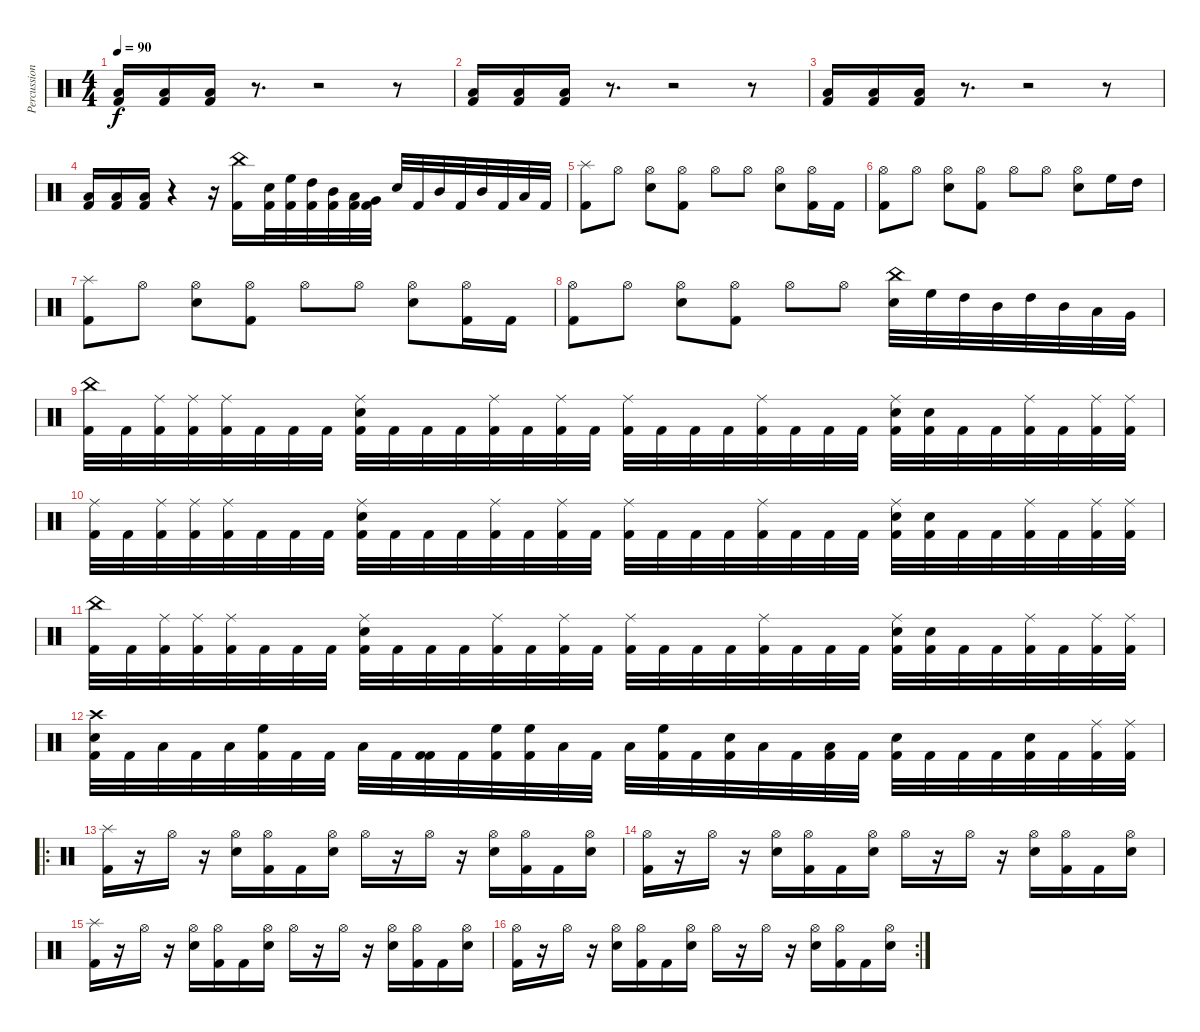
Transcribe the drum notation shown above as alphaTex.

\track ("Percussion" "Percussion") {instrument percussion}
\staff {score}
\articulation defaults
\ts (4 4)
\tempo 90
\clef neutral
\ks c
("Low Floor Tom (hit)" "Kick (hit) 2").16{dy f} ("Low Floor Tom (hit)" "Kick (hit) 2").16 ("Low Floor Tom (hit)" "Kick (hit) 2").16 r.8{d} r.2 r.8 |
("Low Floor Tom (hit)" "Kick (hit) 2").16 ("Low Floor Tom (hit)" "Kick (hit) 2").16 ("Low Floor Tom (hit)" "Kick (hit) 2").16 r.8{d} r.2 r.8 |
("Low Floor Tom (hit)" "Kick (hit) 2").16 ("Low Floor Tom (hit)" "Kick (hit) 2").16 ("Low Floor Tom (hit)" "Kick (hit) 2").16 r.8{d} r.2 r.8 |
("Low Floor Tom (hit)" "Kick (hit) 2").16 ("Low Floor Tom (hit)" "Kick (hit) 2").16 ("Low Floor Tom (hit)" "Kick (hit) 2").16 r.4 r.16 ("China (hit)" "Kick (hit) 2").16 ("Snare (hit) 2" "Kick (hit) 2").32 ("High Floor Tom (hit)" "Kick (hit) 2").32 ("High Tom (hit)" "Kick (hit) 2").32 ("Mid Tom (hit)" "Kick (hit) 2").32 ("Low Tom (hit)" "Kick (hit) 2").32 ("Very Low Tom (hit)" "Kick (hit) 2").32 "Snare (hit) 2".32 "Kick (hit) 2".32 "Mid Tom (hit)".32 "Kick (hit) 2".32 "Mid Tom (hit)".32 "Kick (hit) 2".32 "Low Tom (hit)".32 "Kick (hit) 2".32 |
("Splash (hit)" "Kick (hit) 2").8 "Hi-Hat (open)".8 ("Hi-Hat (open)" "Snare (hit) 2").8 ("Hi-Hat (open)" "Kick (hit) 2").8 "Hi-Hat (open)".8 "Hi-Hat (open)".8 ("Hi-Hat (open)" "Snare (hit) 2").8 ("Hi-Hat (open)" "Kick (hit) 2").16 "Kick (hit) 2".16 |
("Hi-Hat (open)" "Kick (hit) 2").8 "Hi-Hat (open)".8 ("Hi-Hat (open)" "Snare (hit) 2").8 ("Hi-Hat (open)" "Kick (hit) 2").8 "Hi-Hat (open)".8 "Hi-Hat (open)".8 ("Hi-Hat (open)" "Snare (hit) 2").8 "High Floor Tom (hit)".16 "High Tom (hit)".16 |
("Splash (hit)" "Kick (hit) 2").8 "Hi-Hat (open)".8 ("Hi-Hat (open)" "Snare (hit) 2").8 ("Hi-Hat (open)" "Kick (hit) 2").8 "Hi-Hat (open)".8 "Hi-Hat (open)".8 ("Hi-Hat (open)" "Snare (hit) 2").8 ("Hi-Hat (open)" "Kick (hit) 2").16 "Kick (hit) 2".16 |
("Hi-Hat (open)" "Kick (hit) 2").8 "Hi-Hat (open)".8 ("Hi-Hat (open)" "Snare (hit) 2").8 ("Hi-Hat (open)" "Kick (hit) 2").8 "Hi-Hat (open)".8 "Hi-Hat (open)".8 ("China (hit)" "Snare (hit) 2").32 "High Floor Tom (hit)".32 "High Tom (hit)".32 "Mid Tom (hit)".32 "High Tom (hit)".32 "Mid Tom (hit)".32 "Low Tom (hit)".32 "Very Low Tom (hit)".32 |
("China (hit)" "Kick (hit) 2").32 "Kick (hit) 2".32 ("Ride (middle)" "Kick (hit) 2").32 ("Ride (middle)" "Kick (hit) 2").32 ("Ride (middle)" "Kick (hit) 2").32 "Kick (hit) 2".32 "Kick (hit) 2".32 "Kick (hit) 2".32 ("Snare (hit) 2" "Ride (middle)" "Kick (hit) 2").32 "Kick (hit) 2".32 "Kick (hit) 2".32 "Kick (hit) 2".32 ("Ride (middle)" "Kick (hit) 2").32 "Kick (hit) 2".32 ("Ride (middle)" "Kick (hit) 2").32 "Kick (hit) 2".32 ("Ride (middle)" "Kick (hit) 2").32 "Kick (hit) 2".32 "Kick (hit) 2".32 "Kick (hit) 2".32 ("Ride (middle)" "Kick (hit) 2").32 "Kick (hit) 2".32 "Kick (hit) 2".32 "Kick (hit) 2".32 ("Snare (hit) 2" "Ride (middle)" "Kick (hit) 2").32 ("Snare (hit)" "Kick (hit) 2").32 "Kick (hit) 2".32 "Kick (hit) 2".32 ("Ride (middle)" "Kick (hit) 2").32 "Kick (hit) 2".32 ("Ride (middle)" "Kick (hit) 2").32 ("Ride (middle)" "Kick (hit) 2").32 |
("Ride (middle)" "Kick (hit) 2").32 "Kick (hit) 2".32 ("Ride (middle)" "Kick (hit) 2").32 ("Ride (middle)" "Kick (hit) 2").32 ("Ride (middle)" "Kick (hit) 2").32 "Kick (hit) 2".32 "Kick (hit) 2".32 "Kick (hit) 2".32 ("Snare (hit) 2" "Ride (middle)" "Kick (hit) 2").32 "Kick (hit) 2".32 "Kick (hit) 2".32 "Kick (hit) 2".32 ("Ride (middle)" "Kick (hit) 2").32 "Kick (hit) 2".32 ("Ride (middle)" "Kick (hit) 2").32 "Kick (hit) 2".32 ("Ride (middle)" "Kick (hit) 2").32 "Kick (hit) 2".32 "Kick (hit) 2".32 "Kick (hit) 2".32 ("Ride (middle)" "Kick (hit) 2").32 "Kick (hit) 2".32 "Kick (hit) 2".32 "Kick (hit) 2".32 ("Snare (hit) 2" "Ride (middle)" "Kick (hit) 2").32 ("Snare (hit)" "Kick (hit) 2").32 "Kick (hit) 2".32 "Kick (hit) 2".32 ("Ride (middle)" "Kick (hit) 2").32 "Kick (hit) 2".32 ("Ride (middle)" "Kick (hit) 2").32 ("Ride (middle)" "Kick (hit) 2").32 |
("China (hit)" "Kick (hit) 2").32 "Kick (hit) 2".32 ("Ride (middle)" "Kick (hit) 2").32 ("Ride (middle)" "Kick (hit) 2").32 ("Ride (middle)" "Kick (hit) 2").32 "Kick (hit) 2".32 "Kick (hit) 2".32 "Kick (hit) 2".32 ("Snare (hit) 2" "Ride (middle)" "Kick (hit) 2").32 "Kick (hit) 2".32 "Kick (hit) 2".32 "Kick (hit) 2".32 ("Ride (middle)" "Kick (hit) 2").32 "Kick (hit) 2".32 ("Ride (middle)" "Kick (hit) 2").32 "Kick (hit) 2".32 ("Ride (middle)" "Kick (hit) 2").32 "Kick (hit) 2".32 "Kick (hit) 2".32 "Kick (hit) 2".32 ("Ride (middle)" "Kick (hit) 2").32 "Kick (hit) 2".32 "Kick (hit) 2".32 "Kick (hit) 2".32 ("Snare (hit) 2" "Ride (middle)" "Kick (hit) 2").32 ("Snare (hit)" "Kick (hit) 2").32 "Kick (hit) 2".32 "Kick (hit) 2".32 ("Ride (middle)" "Kick (hit) 2").32 "Kick (hit) 2".32 ("Ride (middle)" "Kick (hit) 2").32 ("Ride (middle)" "Kick (hit) 2").32 |
("Crash high (hit)" "Snare (hit) 2" "Kick (hit) 2").32 "Kick (hit) 2".32 "Low Tom (hit)".32 "Kick (hit) 2".32 "Low Tom (hit)".32 ("High Floor Tom (hit)" "Kick (hit) 2").32 "Kick (hit) 2".32 "Kick (hit) 2".32 "Low Tom (hit)".32 "Kick (hit) 2".32 ("Kick (hit) 2" "Kick (hit) 2").32 "Kick (hit) 2".32 ("High Floor Tom (hit)" "Kick (hit) 2").32 ("High Floor Tom (hit)" "Kick (hit) 2").32 "Low Tom (hit)".32 "Kick (hit) 2".32 "Low Tom (hit)".32 ("High Floor Tom (hit)" "Kick (hit) 2").32 "Kick (hit) 2".32 ("Snare (hit)" "Kick (hit) 2").32 "Low Tom (hit)".32 "Kick (hit) 2".32 ("Low Tom (hit)" "Kick (hit) 2").32 "Kick (hit) 2".32 ("Snare (hit) 2" "Kick (hit) 2").32 "Kick (hit) 2".32 "Kick (hit) 2".32 "Kick (hit) 2".32 ("Snare (hit) 2" "Kick (hit) 2").32 "Kick (hit) 2".32 ("Ride (middle)" "Kick (hit) 2").32 ("Ride (middle)" "Kick (hit) 2").32 |
\ro
("Kick (hit) 2" "Splash (hit)").16 r.16 "Hi-Hat (open)".16 r.16 ("Snare (hit) 2" "Hi-Hat (open)").16 ("Kick (hit) 2" "Hi-Hat (open)").16 "Kick (hit) 2".16 ("Snare (hit) 2" "Hi-Hat (open)").16 "Hi-Hat (open)".16 r.16 "Hi-Hat (open)".16 r.16 ("Snare (hit) 2" "Hi-Hat (open)").16 ("Kick (hit) 2" "Hi-Hat (open)").16 "Kick (hit) 2".16 ("Snare (hit) 2" "Hi-Hat (open)").16 |
("Kick (hit) 2" "Hi-Hat (open)").16 r.16 "Hi-Hat (open)".16 r.16 ("Snare (hit) 2" "Hi-Hat (open)").16 ("Kick (hit) 2" "Hi-Hat (open)").16 "Kick (hit) 2".16 ("Snare (hit) 2" "Hi-Hat (open)").16 "Hi-Hat (open)".16 r.16 "Hi-Hat (open)".16 r.16 ("Snare (hit) 2" "Hi-Hat (open)").16 ("Kick (hit) 2" "Hi-Hat (open)").16 "Kick (hit) 2".16 ("Snare (hit) 2" "Hi-Hat (open)").16 |
("Kick (hit) 2" "Splash (hit)").16 r.16 "Hi-Hat (open)".16 r.16 ("Snare (hit) 2" "Hi-Hat (open)").16 ("Kick (hit) 2" "Hi-Hat (open)").16 "Kick (hit) 2".16 ("Snare (hit) 2" "Hi-Hat (open)").16 "Hi-Hat (open)".16 r.16 "Hi-Hat (open)".16 r.16 ("Snare (hit) 2" "Hi-Hat (open)").16 ("Kick (hit) 2" "Hi-Hat (open)").16 "Kick (hit) 2".16 ("Snare (hit) 2" "Hi-Hat (open)").16 |
\rc 2
("Kick (hit) 2" "Hi-Hat (open)").16 r.16 "Hi-Hat (open)".16 r.16 ("Snare (hit) 2" "Hi-Hat (open)").16 ("Kick (hit) 2" "Hi-Hat (open)").16 "Kick (hit) 2".16 ("Snare (hit) 2" "Hi-Hat (open)").16 "Hi-Hat (open)".16 r.16 "Hi-Hat (open)".16 r.16 ("Snare (hit) 2" "Hi-Hat (open)").16 ("Kick (hit) 2" "Hi-Hat (open)").16 "Kick (hit) 2".16 ("Snare (hit) 2" "Hi-Hat (open)").16
